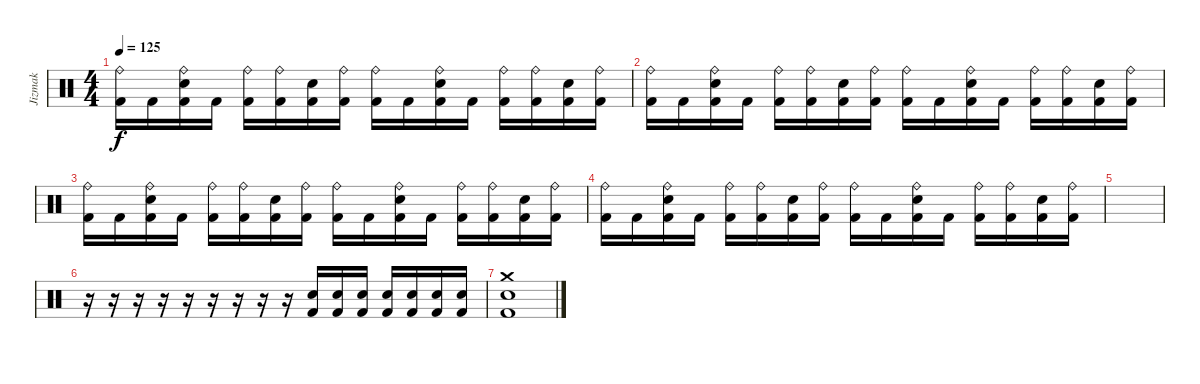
\track ("Jizmak" "Jizmak") {instrument percussion}
\staff {score}
\articulation defaults
\ts (4 4)
\tempo 125
\clef neutral
\ks c
("Ride (bell)" "Kick (hit) 2").16{dy f} "Kick (hit) 2".16 ("Ride (bell)" "Snare (hit) 2" "Kick (hit) 2").16 "Kick (hit) 2".16 ("Ride (bell)" "Kick (hit) 2").16 ("Ride (bell)" "Kick (hit) 2").16 ("Snare (hit) 2" "Kick (hit) 2").16 ("Ride (bell)" "Kick (hit) 2").16 ("Ride (bell)" "Kick (hit) 2").16 "Kick (hit) 2".16 ("Ride (bell)" "Snare (hit) 2" "Kick (hit) 2").16 "Kick (hit) 2".16 ("Ride (bell)" "Kick (hit) 2").16 ("Ride (bell)" "Kick (hit) 2").16 ("Snare (hit) 2" "Kick (hit) 2").16 ("Ride (bell)" "Kick (hit) 2").16 |
("Ride (bell)" "Kick (hit) 2").16 "Kick (hit) 2".16 ("Ride (bell)" "Snare (hit) 2" "Kick (hit) 2").16 "Kick (hit) 2".16 ("Ride (bell)" "Kick (hit) 2").16 ("Ride (bell)" "Kick (hit) 2").16 ("Snare (hit) 2" "Kick (hit) 2").16 ("Ride (bell)" "Kick (hit) 2").16 ("Ride (bell)" "Kick (hit) 2").16 "Kick (hit) 2".16 ("Ride (bell)" "Snare (hit) 2" "Kick (hit) 2").16 "Kick (hit) 2".16 ("Ride (bell)" "Kick (hit) 2").16 ("Ride (bell)" "Kick (hit) 2").16 ("Snare (hit) 2" "Kick (hit) 2").16 ("Ride (bell)" "Kick (hit) 2").16 |
("Ride (bell)" "Kick (hit) 2").16 "Kick (hit) 2".16 ("Ride (bell)" "Snare (hit) 2" "Kick (hit) 2").16 "Kick (hit) 2".16 ("Ride (bell)" "Kick (hit) 2").16 ("Ride (bell)" "Kick (hit) 2").16 ("Snare (hit) 2" "Kick (hit) 2").16 ("Ride (bell)" "Kick (hit) 2").16 ("Ride (bell)" "Kick (hit) 2").16 "Kick (hit) 2".16 ("Ride (bell)" "Snare (hit) 2" "Kick (hit) 2").16 "Kick (hit) 2".16 ("Ride (bell)" "Kick (hit) 2").16 ("Ride (bell)" "Kick (hit) 2").16 ("Snare (hit) 2" "Kick (hit) 2").16 ("Ride (bell)" "Kick (hit) 2").16 |
("Ride (bell)" "Kick (hit) 2").16 "Kick (hit) 2".16 ("Ride (bell)" "Snare (hit) 2" "Kick (hit) 2").16 "Kick (hit) 2".16 ("Ride (bell)" "Kick (hit) 2").16 ("Ride (bell)" "Kick (hit) 2").16 ("Snare (hit) 2" "Kick (hit) 2").16 ("Ride (bell)" "Kick (hit) 2").16 ("Ride (bell)" "Kick (hit) 2").16 "Kick (hit) 2".16 ("Ride (bell)" "Snare (hit) 2" "Kick (hit) 2").16 "Kick (hit) 2".16 ("Ride (bell)" "Kick (hit) 2").16 ("Ride (bell)" "Kick (hit) 2").16 ("Snare (hit) 2" "Kick (hit) 2").16 ("Ride (bell)" "Kick (hit) 2").16 |
|
r.16 r.16 r.16 r.16 r.16 r.16 r.16 r.16 r.16 ("Snare (hit) 2" "Kick (hit) 2").16 ("Snare (hit) 2" "Kick (hit) 2").16 ("Snare (hit) 2" "Kick (hit) 2").16 ("Snare (hit) 2" "Kick (hit) 2").16 ("Snare (hit) 2" "Kick (hit) 2").16 ("Snare (hit) 2" "Kick (hit) 2").16 ("Snare (hit) 2" "Kick (hit) 2").16 |
("Crash medium (hit)" "Snare (hit) 2" "Kick (hit) 2").1
